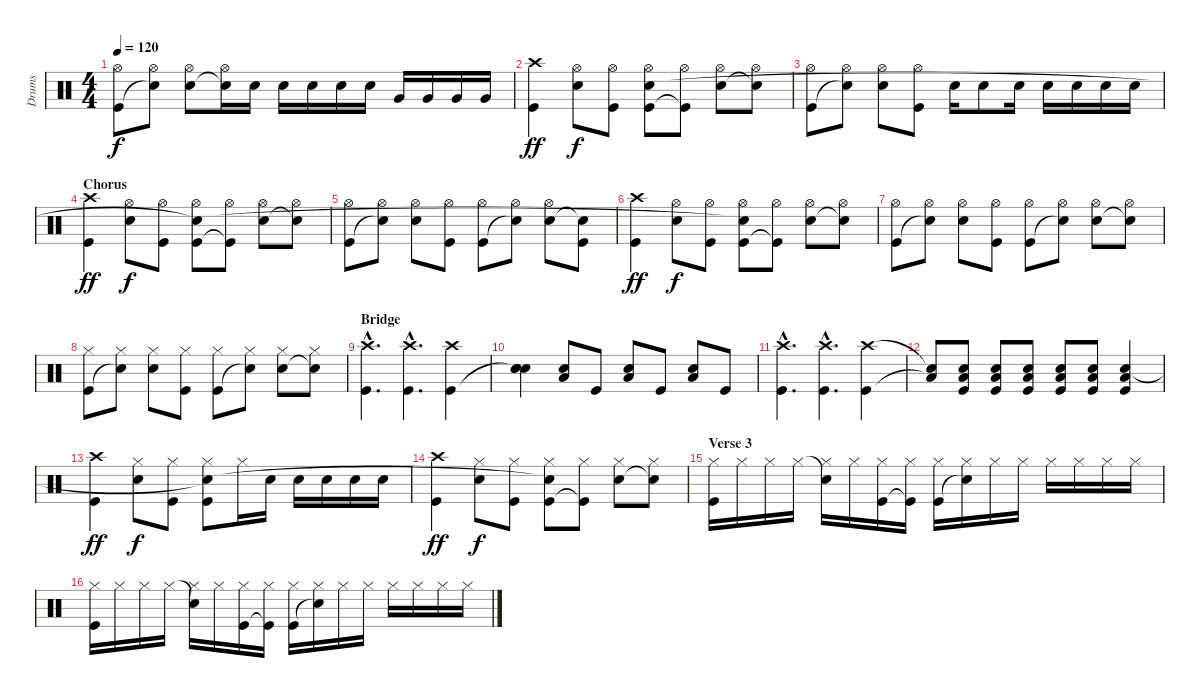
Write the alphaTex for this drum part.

\track ("Drums" "Drums") {instrument percussion}
\staff {score}
\articulation defaults
\ts (4 4)
\tempo 120
\clef neutral
\ks c
("Kick (hit)" "Hi-Hat (open)").8{dy f} ("Snare (hit)"{t} "Hi-Hat (open)").8 ("Snare (hit) 2" "Hi-Hat (open)").8 ("Snare (hit)"{t} "Hi-Hat (open)").16 "Snare (hit) 2".16 "Snare (hit) 2".16 "Snare (hit) 2".16 "Snare (hit) 2".16 "Snare (hit) 2".16 "Very Low Tom (hit)".16 "Very Low Tom (hit)".16 "Very Low Tom (hit)".16 "Very Low Tom (hit)".16 |
("Kick (hit)" "Crash high (hit)").4{dy ff} ("Snare (hit) 2" "Hi-Hat (open)").8{dy f} ("Kick (hit)" "Hi-Hat (open)").8 ("Kick (hit)" "Hi-Hat (open)" "Snare (hit)"{t}).8 ("Kick (hit)"{t} "Hi-Hat (open)").8 ("Snare (hit) 2" "Hi-Hat (open)").8 ("Snare (hit)"{t} "Hi-Hat (open)").8 |
("Kick (hit)" "Hi-Hat (open)").8 ("Snare (hit)"{t} "Hi-Hat (open)").8 ("Snare (hit) 2" "Hi-Hat (open)").8 ("Kick (hit)" "Hi-Hat (open)").8 "Snare (hit) 2".16 "Snare (hit) 2".8 "Snare (hit) 2".16 "Snare (hit) 2".16 "Snare (hit) 2".16 "Snare (hit) 2".16 "Snare (hit) 2".16 |
\section ("" "Chorus")
("Kick (hit)" "Crash high (hit)").4{dy ff} ("Snare (hit) 2" "Hi-Hat (open)").8{dy f} ("Kick (hit)" "Hi-Hat (open)").8 ("Kick (hit)" "Hi-Hat (open)" "Snare (hit)"{t}).8 ("Kick (hit)"{t} "Hi-Hat (open)").8 ("Snare (hit) 2" "Hi-Hat (open)").8 ("Snare (hit)"{t} "Hi-Hat (open)").8 |
("Kick (hit)" "Hi-Hat (open)").8 ("Snare (hit)"{t} "Hi-Hat (open)").8 ("Snare (hit) 2" "Hi-Hat (open)").8 ("Kick (hit)" "Hi-Hat (open)").8 ("Kick (hit)" "Hi-Hat (open)").8 ("Snare (hit)"{t} "Hi-Hat (open)").8 ("Snare (hit) 2" "Hi-Hat (open)").8 ("Snare (hit)"{t} "Kick (hit)").8 |
("Kick (hit)" "Crash high (hit)").4{dy ff} ("Snare (hit) 2" "Hi-Hat (open)").8{dy f} ("Kick (hit)" "Hi-Hat (open)").8 ("Kick (hit)" "Hi-Hat (open)" "Snare (hit)"{t}).8 ("Kick (hit)"{t} "Hi-Hat (open)").8 ("Snare (hit) 2" "Hi-Hat (open)").8 ("Snare (hit)"{t} "Hi-Hat (open)").8 |
("Kick (hit)" "Hi-Hat (open)").8 ("Snare (hit)"{t} "Hi-Hat (open)").8 ("Snare (hit) 2" "Hi-Hat (open)").8 ("Kick (hit)" "Hi-Hat (open)").8 ("Kick (hit)" "Hi-Hat (open)").8 ("Snare (hit)"{t} "Hi-Hat (open)").8 ("Snare (hit) 2" "Hi-Hat (open)").8 ("Snare (hit)"{t} "Hi-Hat (open)").8 |
("Kick (hit)" "Hi-Hat (closed)").8 ("Snare (hit)"{t} "Hi-Hat (closed)").8 ("Snare (hit) 2" "Hi-Hat (closed)").8 ("Kick (hit)" "Hi-Hat (closed)").8 ("Kick (hit)" "Hi-Hat (closed)").8 ("Snare (hit)"{t} "Hi-Hat (closed)").8 ("Snare (hit) 2" "Hi-Hat (closed)").8 ("Snare (hit)"{t} "Hi-Hat (closed)").8 |
\section ("" "Bridge")
("Kick (hit)"{hac} "Crash high (hit)"{hac}).4{d} ("Kick (hit)"{hac} "Crash high (hit)"{hac}).4{d} ("Kick (hit)" "Crash high (hit)").4 |
("Snare (hit)"{t} "Snare (hit) 2" "Snare (hit)").4 ("Low Floor Tom (hit)" "Snare (hit) 2").8 "Kick (hit)".8 ("Low Floor Tom (hit)" "Snare (hit) 2").8 "Kick (hit)".8 ("Low Floor Tom (hit)" "Snare (hit) 2").8 "Kick (hit)".8 |
("Kick (hit)"{hac} "Crash high (hit)"{hac}).4{d} ("Kick (hit)"{hac} "Crash high (hit)"{hac}).4{d} ("Kick (hit)" "Crash high (hit)").4 |
("Low Floor Tom (hit)"{t} "Snare (hit)"{t}).8 ("Low Floor Tom (hit)" "Kick (hit)" "Snare (hit) 2").8 ("Low Floor Tom (hit)" "Kick (hit)" "Snare (hit) 2").8 ("Low Floor Tom (hit)" "Kick (hit)" "Snare (hit) 2").8 ("Low Floor Tom (hit)" "Kick (hit)" "Snare (hit) 2").8 ("Low Floor Tom (hit)" "Kick (hit)" "Snare (hit) 2").8 ("Low Floor Tom (hit)" "Kick (hit)" "Snare (hit) 2").4 |
("Kick (hit)" "Crash high (hit)").4{dy ff} ("Snare (hit) 2" "Hi-Hat (closed)").8{dy f} ("Kick (hit)" "Hi-Hat (closed)").8 ("Kick (hit)" "Hi-Hat (closed)" "Snare (hit)"{t}).8 "Hi-Hat (closed)".16 "Snare (hit) 2".16 "Snare (hit) 2".16 "Snare (hit) 2".16 "Snare (hit) 2".16 "Snare (hit) 2".16 |
("Kick (hit)" "Crash high (hit)").4{dy ff} ("Snare (hit) 2" "Hi-Hat (closed)").8{dy f} ("Kick (hit)" "Hi-Hat (closed)").8 ("Kick (hit)" "Hi-Hat (closed)" "Snare (hit)"{t}).8 ("Kick (hit)"{t} "Hi-Hat (closed)").8 ("Snare (hit) 2" "Hi-Hat (closed)").8 ("Snare (hit)"{t} "Hi-Hat (closed)").8 |
\section ("" "Verse 3")
("Kick (hit)" "Hi-Hat (closed)").16 "Hi-Hat (closed)".16 "Hi-Hat (closed)".16 "Hi-Hat (closed)".16 ("Snare (hit)"{t} "Hi-Hat (closed)").16 "Hi-Hat (closed)".16 ("Kick (hit)" "Hi-Hat (closed)").16 ("Kick (hit)"{t} "Hi-Hat (closed)").16 ("Kick (hit)" "Hi-Hat (closed)").16 ("Snare (hit)"{t} "Hi-Hat (closed)").16 "Hi-Hat (closed)".16 "Hi-Hat (closed)".16 "Hi-Hat (closed)".16 "Hi-Hat (closed)".16 "Hi-Hat (closed)".16 "Hi-Hat (closed)".16 |
("Kick (hit)" "Hi-Hat (closed)").16 "Hi-Hat (closed)".16 "Hi-Hat (closed)".16 "Hi-Hat (closed)".16 ("Snare (hit)"{t} "Hi-Hat (closed)").16 "Hi-Hat (closed)".16 ("Kick (hit)" "Hi-Hat (closed)").16 ("Kick (hit)"{t} "Hi-Hat (closed)").16 ("Kick (hit)" "Hi-Hat (closed)").16 ("Snare (hit)"{t} "Hi-Hat (closed)").16 "Hi-Hat (closed)".16 "Hi-Hat (closed)".16 "Hi-Hat (closed)".16 "Hi-Hat (closed)".16 "Hi-Hat (closed)".16 "Hi-Hat (closed)".16
